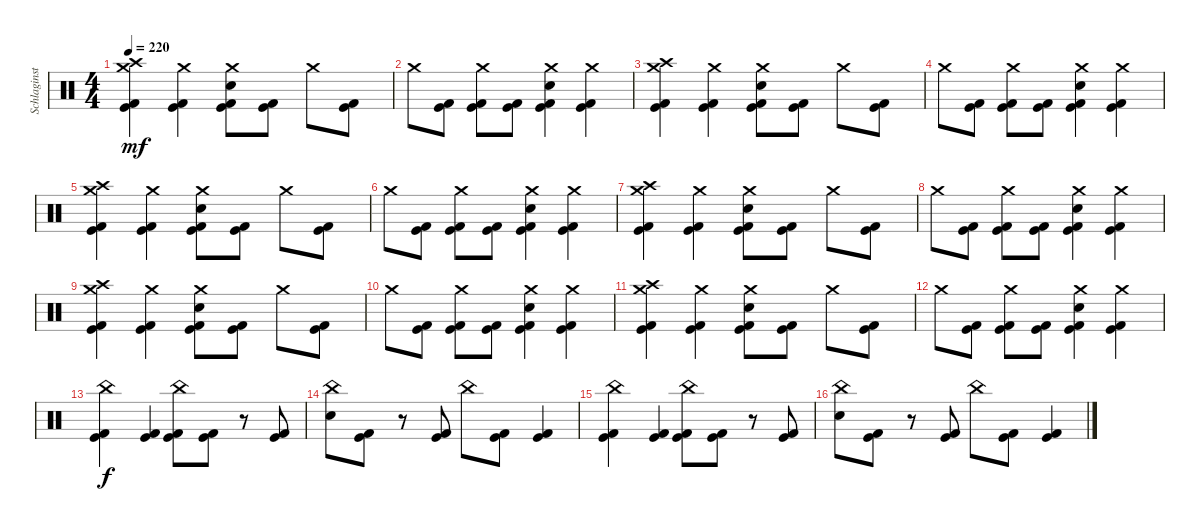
\track ("Schlaginstrumente - Auswahl" "Schlaginst") {instrument percussion}
\staff {score}
\articulation defaults
\ts (4 4)
\tempo 220
\clef neutral
\ks c
("Crash medium (hit)" "Crash high (hit)" "Kick (hit) 2" "Kick (hit)").4{dy mf} ("Crash medium (hit)" "Kick (hit) 2" "Kick (hit)").4 ("Crash medium (hit)" "Electric Snare (hit)" "Kick (hit) 2" "Kick (hit)").8 ("Kick (hit) 2" "Kick (hit)").8 "Crash medium (hit)".8 ("Kick (hit) 2" "Kick (hit)").8 |
"Crash medium (hit)".8 ("Kick (hit) 2" "Kick (hit)").8 ("Crash medium (hit)" "Kick (hit) 2" "Kick (hit)").8 ("Kick (hit) 2" "Kick (hit)").8 ("Crash medium (hit)" "Electric Snare (hit)" "Kick (hit) 2" "Kick (hit)").4 ("Crash medium (hit)" "Kick (hit) 2" "Kick (hit)").4 |
("Crash medium (hit)" "Crash high (hit)" "Kick (hit) 2" "Kick (hit)").4 ("Crash medium (hit)" "Kick (hit) 2" "Kick (hit)").4 ("Crash medium (hit)" "Electric Snare (hit)" "Kick (hit) 2" "Kick (hit)").8 ("Kick (hit) 2" "Kick (hit)").8 "Crash medium (hit)".8 ("Kick (hit) 2" "Kick (hit)").8 |
"Crash medium (hit)".8 ("Kick (hit) 2" "Kick (hit)").8 ("Crash medium (hit)" "Kick (hit) 2" "Kick (hit)").8 ("Kick (hit) 2" "Kick (hit)").8 ("Crash medium (hit)" "Electric Snare (hit)" "Kick (hit) 2" "Kick (hit)").4 ("Crash medium (hit)" "Kick (hit) 2" "Kick (hit)").4 |
("Crash medium (hit)" "Crash high (hit)" "Kick (hit) 2" "Kick (hit)").4 ("Crash medium (hit)" "Kick (hit) 2" "Kick (hit)").4 ("Crash medium (hit)" "Electric Snare (hit)" "Kick (hit) 2" "Kick (hit)").8 ("Kick (hit) 2" "Kick (hit)").8 "Crash medium (hit)".8 ("Kick (hit) 2" "Kick (hit)").8 |
"Crash medium (hit)".8 ("Kick (hit) 2" "Kick (hit)").8 ("Crash medium (hit)" "Kick (hit) 2" "Kick (hit)").8 ("Kick (hit) 2" "Kick (hit)").8 ("Crash medium (hit)" "Electric Snare (hit)" "Kick (hit) 2" "Kick (hit)").4 ("Crash medium (hit)" "Kick (hit) 2" "Kick (hit)").4 |
("Crash medium (hit)" "Crash high (hit)" "Kick (hit) 2" "Kick (hit)").4 ("Crash medium (hit)" "Kick (hit) 2" "Kick (hit)").4 ("Crash medium (hit)" "Electric Snare (hit)" "Kick (hit) 2" "Kick (hit)").8 ("Kick (hit) 2" "Kick (hit)").8 "Crash medium (hit)".8 ("Kick (hit) 2" "Kick (hit)").8 |
"Crash medium (hit)".8 ("Kick (hit) 2" "Kick (hit)").8 ("Crash medium (hit)" "Kick (hit) 2" "Kick (hit)").8 ("Kick (hit) 2" "Kick (hit)").8 ("Crash medium (hit)" "Electric Snare (hit)" "Kick (hit) 2" "Kick (hit)").4 ("Crash medium (hit)" "Kick (hit) 2" "Kick (hit)").4 |
("Crash medium (hit)" "Crash high (hit)" "Kick (hit) 2" "Kick (hit)").4 ("Crash medium (hit)" "Kick (hit) 2" "Kick (hit)").4 ("Crash medium (hit)" "Electric Snare (hit)" "Kick (hit) 2" "Kick (hit)").8 ("Kick (hit) 2" "Kick (hit)").8 "Crash medium (hit)".8 ("Kick (hit) 2" "Kick (hit)").8 |
"Crash medium (hit)".8 ("Kick (hit) 2" "Kick (hit)").8 ("Crash medium (hit)" "Kick (hit) 2" "Kick (hit)").8 ("Kick (hit) 2" "Kick (hit)").8 ("Crash medium (hit)" "Electric Snare (hit)" "Kick (hit) 2" "Kick (hit)").4 ("Crash medium (hit)" "Kick (hit) 2" "Kick (hit)").4 |
("Crash medium (hit)" "Crash high (hit)" "Kick (hit) 2" "Kick (hit)").4 ("Crash medium (hit)" "Kick (hit) 2" "Kick (hit)").4 ("Crash medium (hit)" "Electric Snare (hit)" "Kick (hit) 2" "Kick (hit)").8 ("Kick (hit) 2" "Kick (hit)").8 "Crash medium (hit)".8 ("Kick (hit) 2" "Kick (hit)").8 |
"Crash medium (hit)".8 ("Kick (hit) 2" "Kick (hit)").8 ("Crash medium (hit)" "Kick (hit) 2" "Kick (hit)").8 ("Kick (hit) 2" "Kick (hit)").8 ("Crash medium (hit)" "Electric Snare (hit)" "Kick (hit) 2" "Kick (hit)").4 ("Crash medium (hit)" "Kick (hit) 2" "Kick (hit)").4 |
("China (hit)" "Kick (hit) 2" "Kick (hit)").4{dy f} ("Kick (hit) 2" "Kick (hit)").4 ("China (hit)" "Kick (hit) 2" "Kick (hit)").8 ("Kick (hit) 2" "Kick (hit)").8 r.8 ("Kick (hit) 2" "Kick (hit)").8 |
("China (hit)" "Electric Snare (hit)").8 ("Kick (hit) 2" "Kick (hit)").8 r.8 ("Kick (hit) 2" "Kick (hit)").8 "China (hit)".8 ("Kick (hit) 2" "Kick (hit)").8 ("Kick (hit) 2" "Kick (hit)").4 |
("China (hit)" "Kick (hit) 2" "Kick (hit)").4 ("Kick (hit) 2" "Kick (hit)").4 ("China (hit)" "Kick (hit) 2" "Kick (hit)").8 ("Kick (hit) 2" "Kick (hit)").8 r.8 ("Kick (hit) 2" "Kick (hit)").8 |
("China (hit)" "Electric Snare (hit)").8 ("Kick (hit) 2" "Kick (hit)").8 r.8 ("Kick (hit) 2" "Kick (hit)").8 "China (hit)".8 ("Kick (hit) 2" "Kick (hit)").8 ("Kick (hit) 2" "Kick (hit)").4
